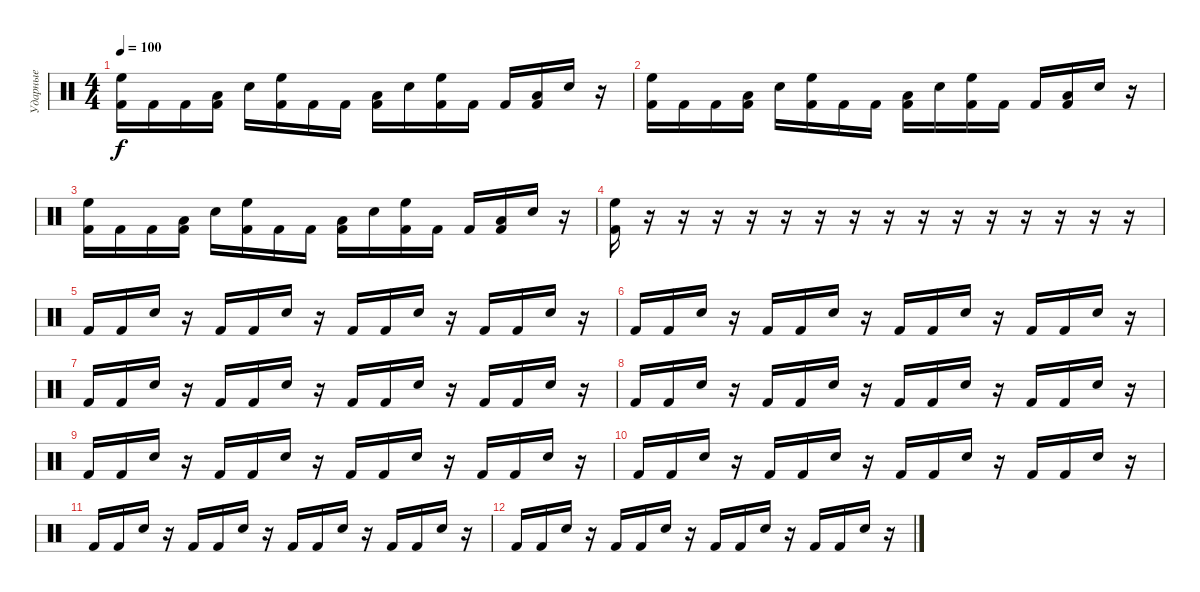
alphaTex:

\track ("Ударные" "Ударные") {instrument percussion}
\staff {score}
\articulation defaults
\ts (4 4)
\tempo 100
\clef neutral
\ks c
("Kick (hit) 2" "High Floor Tom (hit)").16{dy f} "Kick (hit) 2".16 "Kick (hit) 2".16 ("Kick (hit) 2" "Low Tom (hit)").16 "Electric Snare (hit)".16 ("Kick (hit) 2" "High Floor Tom (hit)").16 "Kick (hit) 2".16 "Kick (hit) 2".16 ("Kick (hit) 2" "Low Tom (hit)").16 "Electric Snare (hit)".16 ("Kick (hit) 2" "High Floor Tom (hit)").16 "Kick (hit) 2".16 "Kick (hit) 2".16 ("Kick (hit) 2" "Low Tom (hit)").16 "Electric Snare (hit)".16 r.16 |
("Kick (hit) 2" "High Floor Tom (hit)").16 "Kick (hit) 2".16 "Kick (hit) 2".16 ("Kick (hit) 2" "Low Tom (hit)").16 "Electric Snare (hit)".16 ("Kick (hit) 2" "High Floor Tom (hit)").16 "Kick (hit) 2".16 "Kick (hit) 2".16 ("Kick (hit) 2" "Low Tom (hit)").16 "Electric Snare (hit)".16 ("Kick (hit) 2" "High Floor Tom (hit)").16 "Kick (hit) 2".16 "Kick (hit) 2".16 ("Kick (hit) 2" "Low Tom (hit)").16 "Electric Snare (hit)".16 r.16 |
("Kick (hit) 2" "High Floor Tom (hit)").16 "Kick (hit) 2".16 "Kick (hit) 2".16 ("Kick (hit) 2" "Low Tom (hit)").16 "Electric Snare (hit)".16 ("Kick (hit) 2" "High Floor Tom (hit)").16 "Kick (hit) 2".16 "Kick (hit) 2".16 ("Kick (hit) 2" "Low Tom (hit)").16 "Electric Snare (hit)".16 ("Kick (hit) 2" "High Floor Tom (hit)").16 "Kick (hit) 2".16 "Kick (hit) 2".16 ("Kick (hit) 2" "Low Tom (hit)").16 "Electric Snare (hit)".16 r.16 |
("Kick (hit) 2" "High Floor Tom (hit)").16 r.16 r.16 r.16 r.16 r.16 r.16 r.16 r.16 r.16 r.16 r.16 r.16 r.16 r.16 r.16 |
"Kick (hit) 2".16 "Kick (hit) 2".16 "Electric Snare (hit)".16 r.16 "Kick (hit) 2".16 "Kick (hit) 2".16 "Electric Snare (hit)".16 r.16 "Kick (hit) 2".16 "Kick (hit) 2".16 "Electric Snare (hit)".16 r.16 "Kick (hit) 2".16 "Kick (hit) 2".16 "Electric Snare (hit)".16 r.16 |
"Kick (hit) 2".16 "Kick (hit) 2".16 "Electric Snare (hit)".16 r.16 "Kick (hit) 2".16 "Kick (hit) 2".16 "Electric Snare (hit)".16 r.16 "Kick (hit) 2".16 "Kick (hit) 2".16 "Electric Snare (hit)".16 r.16 "Kick (hit) 2".16 "Kick (hit) 2".16 "Electric Snare (hit)".16 r.16 |
"Kick (hit) 2".16 "Kick (hit) 2".16 "Electric Snare (hit)".16 r.16 "Kick (hit) 2".16 "Kick (hit) 2".16 "Electric Snare (hit)".16 r.16 "Kick (hit) 2".16 "Kick (hit) 2".16 "Electric Snare (hit)".16 r.16 "Kick (hit) 2".16 "Kick (hit) 2".16 "Electric Snare (hit)".16 r.16 |
"Kick (hit) 2".16 "Kick (hit) 2".16 "Electric Snare (hit)".16 r.16 "Kick (hit) 2".16 "Kick (hit) 2".16 "Electric Snare (hit)".16 r.16 "Kick (hit) 2".16 "Kick (hit) 2".16 "Electric Snare (hit)".16 r.16 "Kick (hit) 2".16 "Kick (hit) 2".16 "Electric Snare (hit)".16 r.16 |
"Kick (hit) 2".16 "Kick (hit) 2".16 "Electric Snare (hit)".16 r.16 "Kick (hit) 2".16 "Kick (hit) 2".16 "Electric Snare (hit)".16 r.16 "Kick (hit) 2".16 "Kick (hit) 2".16 "Electric Snare (hit)".16 r.16 "Kick (hit) 2".16 "Kick (hit) 2".16 "Electric Snare (hit)".16 r.16 |
"Kick (hit) 2".16 "Kick (hit) 2".16 "Electric Snare (hit)".16 r.16 "Kick (hit) 2".16 "Kick (hit) 2".16 "Electric Snare (hit)".16 r.16 "Kick (hit) 2".16 "Kick (hit) 2".16 "Electric Snare (hit)".16 r.16 "Kick (hit) 2".16 "Kick (hit) 2".16 "Electric Snare (hit)".16 r.16 |
"Kick (hit) 2".16 "Kick (hit) 2".16 "Electric Snare (hit)".16 r.16 "Kick (hit) 2".16 "Kick (hit) 2".16 "Electric Snare (hit)".16 r.16 "Kick (hit) 2".16 "Kick (hit) 2".16 "Electric Snare (hit)".16 r.16 "Kick (hit) 2".16 "Kick (hit) 2".16 "Electric Snare (hit)".16 r.16 |
"Kick (hit) 2".16 "Kick (hit) 2".16 "Electric Snare (hit)".16 r.16 "Kick (hit) 2".16 "Kick (hit) 2".16 "Electric Snare (hit)".16 r.16 "Kick (hit) 2".16 "Kick (hit) 2".16 "Electric Snare (hit)".16 r.16 "Kick (hit) 2".16 "Kick (hit) 2".16 "Electric Snare (hit)".16 r.16
